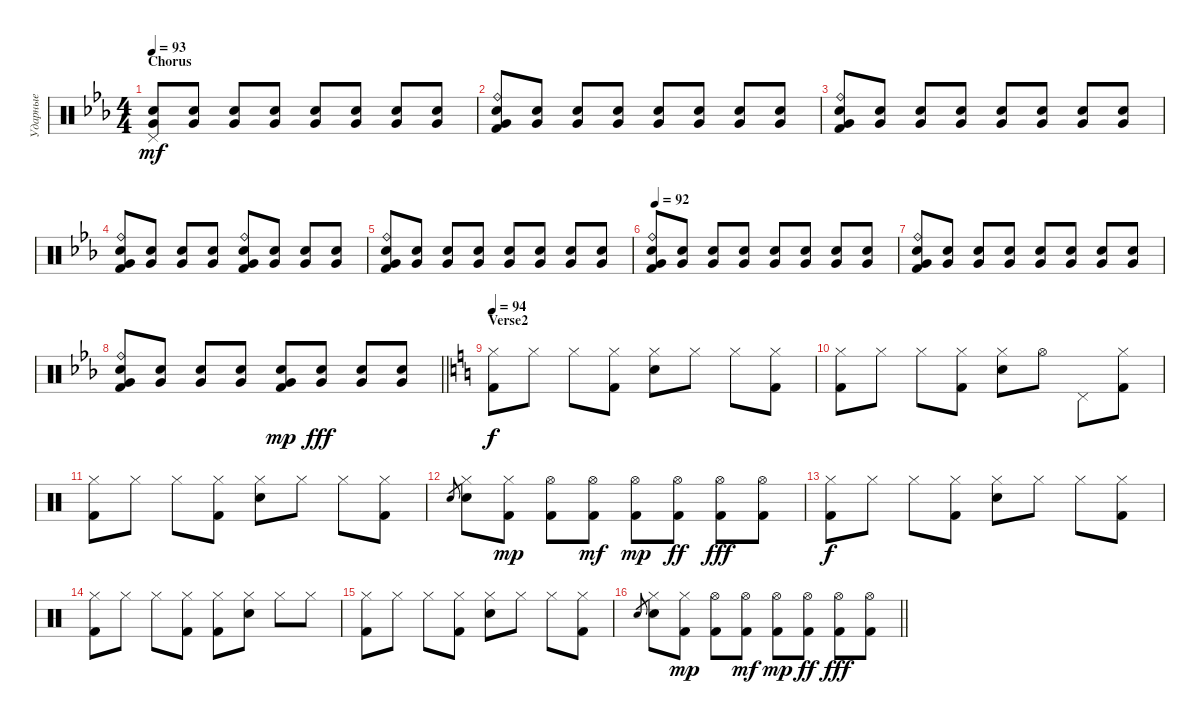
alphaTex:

\track ("Ударные" "Ударные") {instrument percussion}
\staff {score}
\articulation defaults
\ts (4 4)
\section ("" "Chorus")
\tempo 93
\clef neutral
\ks eb
("Pedal Hi-Hat (hit)" "Very Low Tom (hit)" "Snare (hit) 2").8{dy mf} ("Very Low Tom (hit)" "Snare (hit) 2").8 ("Very Low Tom (hit)" "Snare (hit) 2").8 ("Very Low Tom (hit)" "Snare (hit) 2").8 ("Very Low Tom (hit)" "Snare (hit) 2").8 ("Very Low Tom (hit)" "Snare (hit) 2").8 ("Very Low Tom (hit)" "Snare (hit) 2").8 ("Very Low Tom (hit)" "Snare (hit) 2").8 |
("Ride (bell)" "Very Low Tom (hit)" "Snare (hit) 2" "Kick (hit) 2").8 ("Very Low Tom (hit)" "Snare (hit) 2").8 ("Very Low Tom (hit)" "Snare (hit) 2").8 ("Very Low Tom (hit)" "Snare (hit) 2").8 ("Very Low Tom (hit)" "Snare (hit) 2").8 ("Very Low Tom (hit)" "Snare (hit) 2").8 ("Very Low Tom (hit)" "Snare (hit) 2").8 ("Very Low Tom (hit)" "Snare (hit) 2").8 |
("Ride (bell)" "Very Low Tom (hit)" "Snare (hit) 2" "Kick (hit) 2").8 ("Very Low Tom (hit)" "Snare (hit) 2").8 ("Very Low Tom (hit)" "Snare (hit) 2").8 ("Very Low Tom (hit)" "Snare (hit) 2").8 ("Very Low Tom (hit)" "Snare (hit) 2").8 ("Very Low Tom (hit)" "Snare (hit) 2").8 ("Very Low Tom (hit)" "Snare (hit) 2").8 ("Very Low Tom (hit)" "Snare (hit) 2").8 |
("Ride (bell)" "Very Low Tom (hit)" "Snare (hit) 2" "Kick (hit) 2").8 ("Very Low Tom (hit)" "Snare (hit) 2").8 ("Very Low Tom (hit)" "Snare (hit) 2").8 ("Very Low Tom (hit)" "Snare (hit) 2").8 ("Ride (bell)" "Very Low Tom (hit)" "Snare (hit) 2" "Kick (hit) 2").8 ("Very Low Tom (hit)" "Snare (hit) 2").8 ("Very Low Tom (hit)" "Snare (hit) 2").8 ("Very Low Tom (hit)" "Snare (hit) 2").8 |
("Ride (bell)" "Very Low Tom (hit)" "Snare (hit) 2" "Kick (hit) 2").8 ("Very Low Tom (hit)" "Snare (hit) 2").8 ("Very Low Tom (hit)" "Snare (hit) 2").8 ("Very Low Tom (hit)" "Snare (hit) 2").8 ("Very Low Tom (hit)" "Snare (hit) 2").8 ("Very Low Tom (hit)" "Snare (hit) 2").8 ("Very Low Tom (hit)" "Snare (hit) 2").8 ("Very Low Tom (hit)" "Snare (hit) 2").8 |
\tempo 92
("Ride (bell)" "Very Low Tom (hit)" "Snare (hit) 2" "Kick (hit) 2").8 ("Very Low Tom (hit)" "Snare (hit) 2").8 ("Very Low Tom (hit)" "Snare (hit) 2").8 ("Very Low Tom (hit)" "Snare (hit) 2").8 ("Very Low Tom (hit)" "Snare (hit) 2").8 ("Very Low Tom (hit)" "Snare (hit) 2").8 ("Very Low Tom (hit)" "Snare (hit) 2").8 ("Very Low Tom (hit)" "Snare (hit) 2").8 |
("Ride (bell)" "Very Low Tom (hit)" "Snare (hit) 2" "Kick (hit) 2").8 ("Very Low Tom (hit)" "Snare (hit) 2").8 ("Very Low Tom (hit)" "Snare (hit) 2").8 ("Very Low Tom (hit)" "Snare (hit) 2").8 ("Very Low Tom (hit)" "Snare (hit) 2").8 ("Very Low Tom (hit)" "Snare (hit) 2").8 ("Very Low Tom (hit)" "Snare (hit) 2").8 ("Very Low Tom (hit)" "Snare (hit) 2").8 |
\barLineRight lightlight
("Ride (bell)" "Very Low Tom (hit)" "Snare (hit) 2" "Kick (hit) 2").8 ("Very Low Tom (hit)" "Snare (hit) 2").8 ("Very Low Tom (hit)" "Snare (hit) 2").8 ("Very Low Tom (hit)" "Snare (hit) 2").8 ("Very Low Tom (hit)" "Snare (hit) 2" "Kick (hit) 2").8{dy mp} ("Very Low Tom (hit)" "Electric Snare (hit)").8{dy fff} ("Very Low Tom (hit)" "Electric Snare (hit)").8 ("Very Low Tom (hit)" "Electric Snare (hit)").8 |
\section ("" "Verse2")
\tempo 94
\ks c
("Hi-Hat (closed)" "Kick (hit) 2").8{dy f} "Hi-Hat (closed)".8 "Hi-Hat (closed)".8 ("Hi-Hat (closed)" "Kick (hit) 2").8 ("Hi-Hat (closed)" "Electric Snare (hit)").8 "Hi-Hat (closed)".8 "Hi-Hat (closed)".8 ("Hi-Hat (closed)" "Kick (hit) 2").8 |
("Hi-Hat (closed)" "Kick (hit) 2").8 "Hi-Hat (closed)".8 "Hi-Hat (closed)".8 ("Hi-Hat (closed)" "Kick (hit) 2").8 ("Hi-Hat (closed)" "Electric Snare (hit)").8 "Hi-Hat (open)".8 "Pedal Hi-Hat (hit)".8 ("Hi-Hat (closed)" "Kick (hit) 2").8 |
("Hi-Hat (closed)" "Kick (hit) 2").8 "Hi-Hat (closed)".8 "Hi-Hat (closed)".8 ("Hi-Hat (closed)" "Kick (hit) 2").8 ("Hi-Hat (closed)" "Electric Snare (hit)").8 "Hi-Hat (closed)".8 "Hi-Hat (closed)".8 ("Hi-Hat (closed)" "Kick (hit) 2").8 |
"Electric Snare (hit)".8{gr} ("Hi-Hat (closed)" "Electric Snare (hit)").8 ("Hi-Hat (closed)" "Kick (hit) 2").8{dy mp} ("Hi-Hat (open)" "Kick (hit) 2").8 ("Hi-Hat (open)" "Kick (hit) 2").8{dy mf} ("Hi-Hat (open)" "Kick (hit) 2").8{dy mp} ("Hi-Hat (open)" "Kick (hit) 2").8{dy ff} ("Hi-Hat (open)" "Kick (hit) 2").8{dy fff} ("Hi-Hat (open)" "Kick (hit) 2").8 |
("Hi-Hat (closed)" "Kick (hit) 2").8{dy f} "Hi-Hat (closed)".8 "Hi-Hat (closed)".8 ("Hi-Hat (closed)" "Kick (hit) 2").8 ("Hi-Hat (closed)" "Electric Snare (hit)").8 "Hi-Hat (closed)".8 "Hi-Hat (closed)".8 ("Hi-Hat (closed)" "Kick (hit) 2").8 |
("Hi-Hat (closed)" "Kick (hit) 2").8 "Hi-Hat (closed)".8 "Hi-Hat (closed)".8 ("Hi-Hat (closed)" "Kick (hit) 2").8 ("Hi-Hat (closed)" "Kick (hit) 2").8 ("Hi-Hat (closed)" "Electric Snare (hit)").8 "Hi-Hat (closed)".8 "Hi-Hat (closed)".8 |
("Hi-Hat (closed)" "Kick (hit) 2").8 "Hi-Hat (closed)".8 "Hi-Hat (closed)".8 ("Hi-Hat (closed)" "Kick (hit) 2").8 ("Hi-Hat (closed)" "Electric Snare (hit)").8 "Hi-Hat (closed)".8 "Hi-Hat (closed)".8 ("Hi-Hat (closed)" "Kick (hit) 2").8 |
\barLineRight lightlight "Electric Snare (hit)".8{gr}
("Hi-Hat (closed)" "Electric Snare (hit)").8 ("Hi-Hat (closed)" "Kick (hit) 2").8{dy mp} ("Hi-Hat (open)" "Kick (hit) 2").8 ("Hi-Hat (open)" "Kick (hit) 2").8{dy mf} ("Hi-Hat (open)" "Kick (hit) 2").8{dy mp} ("Hi-Hat (open)" "Kick (hit) 2").8{dy ff} ("Hi-Hat (open)" "Kick (hit) 2").8{dy fff} ("Hi-Hat (open)" "Kick (hit) 2").8
